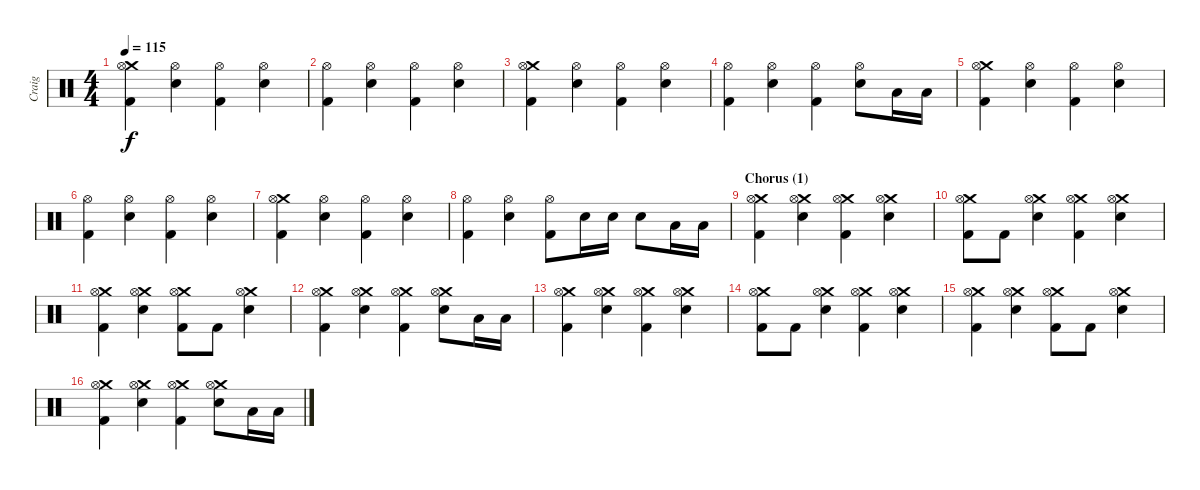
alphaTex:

\track ("Craig" "Craig") {instrument percussion}
\staff {score}
\articulation defaults
\ts (4 4)
\tempo 115
\clef neutral
\ks c
("Crash medium (hit)" "Hi-Hat (open)" "Kick (hit) 2").4{dy f} ("Hi-Hat (open)" "Electric Snare (hit)").4 ("Hi-Hat (open)" "Kick (hit) 2").4 ("Hi-Hat (open)" "Electric Snare (hit)").4 |
("Hi-Hat (open)" "Kick (hit) 2").4 ("Hi-Hat (open)" "Electric Snare (hit)").4 ("Hi-Hat (open)" "Kick (hit) 2").4 ("Hi-Hat (open)" "Electric Snare (hit)").4 |
("Crash medium (hit)" "Hi-Hat (open)" "Kick (hit) 2").4 ("Hi-Hat (open)" "Electric Snare (hit)").4 ("Hi-Hat (open)" "Kick (hit) 2").4 ("Hi-Hat (open)" "Electric Snare (hit)").4 |
("Hi-Hat (open)" "Kick (hit) 2").4 ("Hi-Hat (open)" "Electric Snare (hit)").4 ("Hi-Hat (open)" "Kick (hit) 2").4 ("Hi-Hat (open)" "Electric Snare (hit)").8 "Low Floor Tom (hit)".16 "Low Floor Tom (hit)".16 |
("Crash medium (hit)" "Hi-Hat (open)" "Kick (hit) 2").4 ("Hi-Hat (open)" "Electric Snare (hit)").4 ("Hi-Hat (open)" "Kick (hit) 2").4 ("Hi-Hat (open)" "Electric Snare (hit)").4 |
("Hi-Hat (open)" "Kick (hit) 2").4 ("Hi-Hat (open)" "Electric Snare (hit)").4 ("Hi-Hat (open)" "Kick (hit) 2").4 ("Hi-Hat (open)" "Electric Snare (hit)").4 |
("Crash medium (hit)" "Hi-Hat (open)" "Kick (hit) 2").4 ("Hi-Hat (open)" "Electric Snare (hit)").4 ("Hi-Hat (open)" "Kick (hit) 2").4 ("Hi-Hat (open)" "Electric Snare (hit)").4 |
("Hi-Hat (open)" "Kick (hit) 2").4 ("Hi-Hat (open)" "Electric Snare (hit)").4 ("Hi-Hat (open)" "Kick (hit) 2").8 "Electric Snare (hit)".16 "Electric Snare (hit)".16 "Electric Snare (hit)".8 "Low Floor Tom (hit)".16 "Low Floor Tom (hit)".16 |
\section ("" "Chorus (1)")
("Crash medium (hit)" "Hi-Hat (open)" "Kick (hit) 2").4 ("Crash medium (hit)" "Hi-Hat (open)" "Electric Snare (hit)").4 ("Crash medium (hit)" "Hi-Hat (open)" "Kick (hit) 2").4 ("Crash medium (hit)" "Hi-Hat (open)" "Electric Snare (hit)").4 |
("Crash medium (hit)" "Hi-Hat (open)" "Kick (hit) 2").8 "Kick (hit) 2".8 ("Crash medium (hit)" "Hi-Hat (open)" "Electric Snare (hit)").4 ("Crash medium (hit)" "Hi-Hat (open)" "Kick (hit) 2").4 ("Crash medium (hit)" "Hi-Hat (open)" "Electric Snare (hit)").4 |
("Crash medium (hit)" "Hi-Hat (open)" "Kick (hit) 2").4 ("Crash medium (hit)" "Hi-Hat (open)" "Electric Snare (hit)").4 ("Crash medium (hit)" "Hi-Hat (open)" "Kick (hit) 2").8 "Kick (hit) 2".8 ("Crash medium (hit)" "Hi-Hat (open)" "Electric Snare (hit)").4 |
("Crash medium (hit)" "Hi-Hat (open)" "Kick (hit) 2").4 ("Crash medium (hit)" "Hi-Hat (open)" "Electric Snare (hit)").4 ("Crash medium (hit)" "Hi-Hat (open)" "Kick (hit) 2").4 ("Crash medium (hit)" "Hi-Hat (open)" "Electric Snare (hit)").8 "Low Floor Tom (hit)".16 "Low Floor Tom (hit)".16 |
("Crash medium (hit)" "Hi-Hat (open)" "Kick (hit) 2").4 ("Crash medium (hit)" "Hi-Hat (open)" "Electric Snare (hit)").4 ("Crash medium (hit)" "Hi-Hat (open)" "Kick (hit) 2").4 ("Crash medium (hit)" "Hi-Hat (open)" "Electric Snare (hit)").4 |
("Crash medium (hit)" "Hi-Hat (open)" "Kick (hit) 2").8 "Kick (hit) 2".8 ("Crash medium (hit)" "Hi-Hat (open)" "Electric Snare (hit)").4 ("Crash medium (hit)" "Hi-Hat (open)" "Kick (hit) 2").4 ("Crash medium (hit)" "Hi-Hat (open)" "Electric Snare (hit)").4 |
("Crash medium (hit)" "Hi-Hat (open)" "Kick (hit) 2").4 ("Crash medium (hit)" "Hi-Hat (open)" "Electric Snare (hit)").4 ("Crash medium (hit)" "Hi-Hat (open)" "Kick (hit) 2").8 "Kick (hit) 2".8 ("Crash medium (hit)" "Hi-Hat (open)" "Electric Snare (hit)").4 |
("Crash medium (hit)" "Hi-Hat (open)" "Kick (hit) 2").4 ("Crash medium (hit)" "Hi-Hat (open)" "Electric Snare (hit)").4 ("Crash medium (hit)" "Hi-Hat (open)" "Kick (hit) 2").4 ("Crash medium (hit)" "Hi-Hat (open)" "Electric Snare (hit)").8 "Low Floor Tom (hit)".16 "Low Floor Tom (hit)".16
